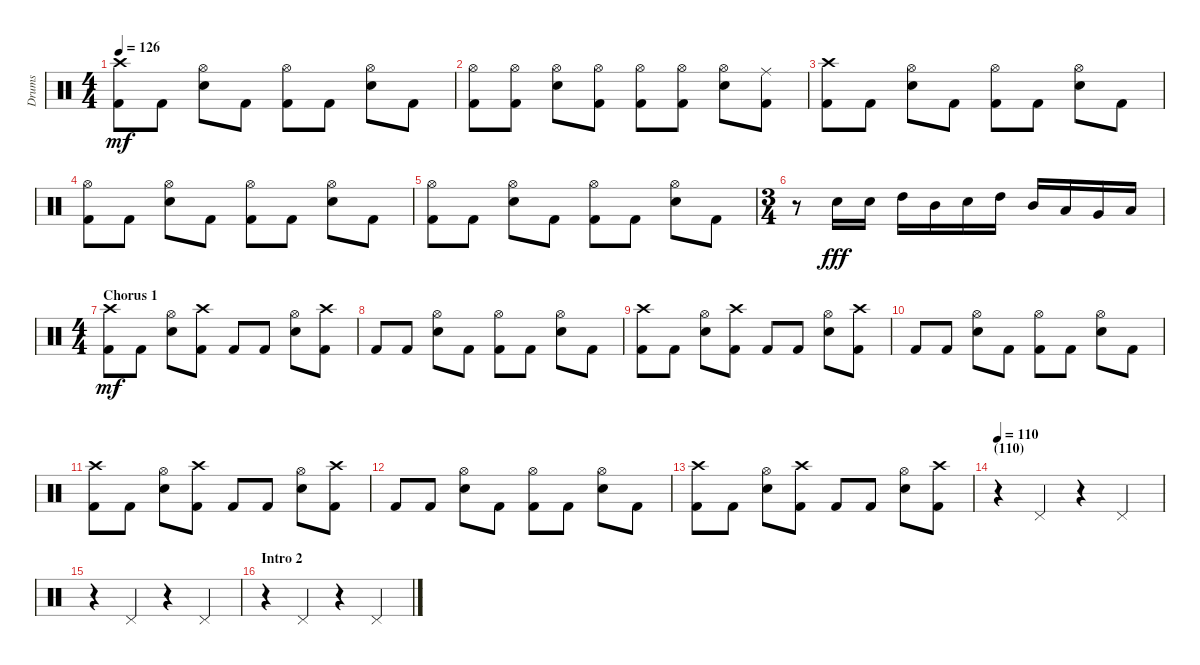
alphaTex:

\track ("Drums" "Drums") {instrument percussion}
\staff {score}
\articulation defaults
\ts (4 4)
\tempo 126
\clef neutral
\ks c
("Crash high (hit)" "Kick (hit) 2").8{dy mf} "Kick (hit) 2".8 ("Hi-Hat (open)" "Electric Snare (hit)").8 "Kick (hit) 2".8 ("Hi-Hat (open)" "Kick (hit) 2").8 "Kick (hit) 2".8 ("Hi-Hat (open)" "Electric Snare (hit)").8 "Kick (hit) 2".8 |
("Hi-Hat (open)" "Kick (hit) 2").8 ("Hi-Hat (open)" "Kick (hit) 2").8 ("Hi-Hat (open)" "Electric Snare (hit)").8 ("Hi-Hat (open)" "Kick (hit) 2").8 ("Hi-Hat (open)" "Kick (hit) 2").8 ("Hi-Hat (open)" "Kick (hit) 2").8 ("Hi-Hat (open)" "Electric Snare (hit)").8 ("Ride (middle)" "Kick (hit) 2").8 |
("Crash high (hit)" "Kick (hit) 2").8 "Kick (hit) 2".8 ("Hi-Hat (open)" "Electric Snare (hit)").8 "Kick (hit) 2".8 ("Hi-Hat (open)" "Kick (hit) 2").8 "Kick (hit) 2".8 ("Hi-Hat (open)" "Electric Snare (hit)").8 "Kick (hit) 2".8 |
("Hi-Hat (open)" "Kick (hit) 2").8 "Kick (hit) 2".8 ("Hi-Hat (open)" "Electric Snare (hit)").8 "Kick (hit) 2".8 ("Hi-Hat (open)" "Kick (hit) 2").8 "Kick (hit) 2".8 ("Hi-Hat (open)" "Electric Snare (hit)").8 "Kick (hit) 2".8 |
("Hi-Hat (open)" "Kick (hit) 2").8 "Kick (hit) 2".8 ("Hi-Hat (open)" "Electric Snare (hit)").8 "Kick (hit) 2".8 ("Hi-Hat (open)" "Kick (hit) 2").8 "Kick (hit) 2".8 ("Hi-Hat (open)" "Electric Snare (hit)").8 "Kick (hit) 2".8 |
\ts (3 4)
r.8 "Electric Snare (hit)".16{dy fff} "Electric Snare (hit)".16 "High Tom (hit)".16 "Mid Tom (hit)".16 "Electric Snare (hit)".16 "High Tom (hit)".16 "Mid Tom (hit)".16 "Low Tom (hit)".16 "Very Low Tom (hit)".16 "Low Floor Tom (hit)".16 |
\ts (4 4)
\section ("" "Chorus 1")
("Crash high (hit)" "Kick (hit) 2").8{dy mf} "Kick (hit) 2".8 ("Hi-Hat (open)" "Electric Snare (hit)").8 ("Crash high (hit)" "Kick (hit) 2").8 "Kick (hit) 2".8 "Kick (hit) 2".8 ("Hi-Hat (open)" "Electric Snare (hit)").8 ("Crash high (hit)" "Kick (hit) 2").8 |
"Kick (hit) 2".8 "Kick (hit) 2".8 ("Hi-Hat (open)" "Electric Snare (hit)").8 "Kick (hit) 2".8 ("Hi-Hat (open)" "Kick (hit) 2").8 "Kick (hit) 2".8 ("Hi-Hat (open)" "Electric Snare (hit)").8 "Kick (hit) 2".8 |
("Crash high (hit)" "Kick (hit) 2").8 "Kick (hit) 2".8 ("Hi-Hat (open)" "Electric Snare (hit)").8 ("Crash high (hit)" "Kick (hit) 2").8 "Kick (hit) 2".8 "Kick (hit) 2".8 ("Hi-Hat (open)" "Electric Snare (hit)").8 ("Crash high (hit)" "Kick (hit) 2").8 |
"Kick (hit) 2".8 "Kick (hit) 2".8 ("Hi-Hat (open)" "Electric Snare (hit)").8 "Kick (hit) 2".8 ("Hi-Hat (open)" "Kick (hit) 2").8 "Kick (hit) 2".8 ("Hi-Hat (open)" "Electric Snare (hit)").8 "Kick (hit) 2".8 |
("Crash high (hit)" "Kick (hit) 2").8 "Kick (hit) 2".8 ("Hi-Hat (open)" "Electric Snare (hit)").8 ("Crash high (hit)" "Kick (hit) 2").8 "Kick (hit) 2".8 "Kick (hit) 2".8 ("Hi-Hat (open)" "Electric Snare (hit)").8 ("Crash high (hit)" "Kick (hit) 2").8 |
"Kick (hit) 2".8 "Kick (hit) 2".8 ("Hi-Hat (open)" "Electric Snare (hit)").8 "Kick (hit) 2".8 ("Hi-Hat (open)" "Kick (hit) 2").8 "Kick (hit) 2".8 ("Hi-Hat (open)" "Electric Snare (hit)").8 "Kick (hit) 2".8 |
("Crash high (hit)" "Kick (hit) 2").8 "Kick (hit) 2".8 ("Hi-Hat (open)" "Electric Snare (hit)").8 ("Crash high (hit)" "Kick (hit) 2").8 "Kick (hit) 2".8 "Kick (hit) 2".8 ("Hi-Hat (open)" "Electric Snare (hit)").8 ("Crash high (hit)" "Kick (hit) 2").8 |
\section ("" "(110)")
\tempo 110
r.4 "Pedal Hi-Hat (hit)".4 r.4 "Pedal Hi-Hat (hit)".4 |
r.4 "Pedal Hi-Hat (hit)".4 r.4 "Pedal Hi-Hat (hit)".4 |
\section ("" "Intro 2")
r.4 "Pedal Hi-Hat (hit)".4 r.4 "Pedal Hi-Hat (hit)".4
